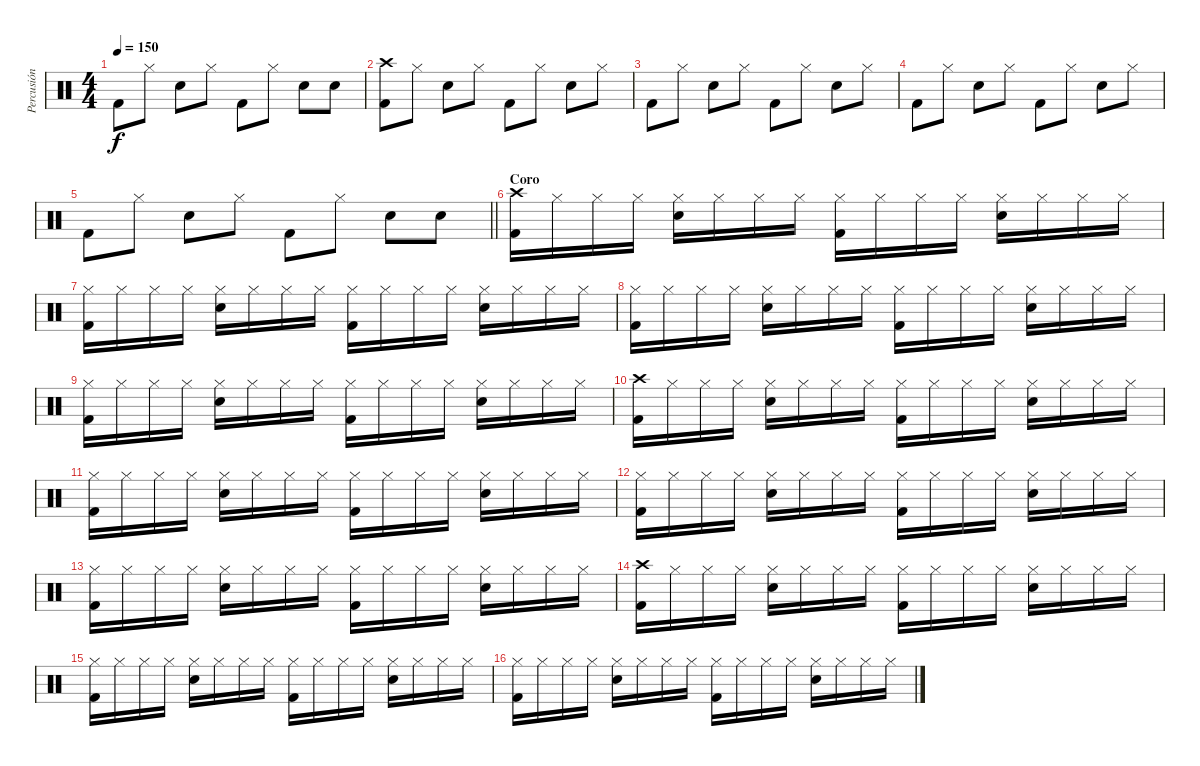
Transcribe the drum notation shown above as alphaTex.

\track ("Percusión" "Percusión") {instrument percussion}
\staff {score}
\articulation defaults
\ts (4 4)
\tempo 150
\clef neutral
\ks c "Kick (hit) 2".8{dy f} "Hi-Hat (closed)".8 "Electric Snare (hit)".8 "Hi-Hat (closed)".8 "Kick (hit) 2".8 "Hi-Hat (closed)".8 "Electric Snare (hit)".8 "Electric Snare (hit)".8
|
("Crash high (hit)" "Kick (hit) 2").8 "Hi-Hat (closed)".8 "Electric Snare (hit)".8 "Hi-Hat (closed)".8 "Kick (hit) 2".8 "Hi-Hat (closed)".8 "Electric Snare (hit)".8 "Hi-Hat (closed)".8 |
"Kick (hit) 2".8 "Hi-Hat (closed)".8 "Electric Snare (hit)".8 "Hi-Hat (closed)".8 "Kick (hit) 2".8 "Hi-Hat (closed)".8 "Electric Snare (hit)".8 "Hi-Hat (closed)".8 |
"Kick (hit) 2".8 "Hi-Hat (closed)".8 "Electric Snare (hit)".8 "Hi-Hat (closed)".8 "Kick (hit) 2".8 "Hi-Hat (closed)".8 "Electric Snare (hit)".8 "Hi-Hat (closed)".8 |
\barLineRight lightlight "Kick (hit) 2".8 "Hi-Hat (closed)".8 "Electric Snare (hit)".8 "Hi-Hat (closed)".8 "Kick (hit) 2".8 "Hi-Hat (closed)".8 "Electric Snare (hit)".8 "Electric Snare (hit)".8
|
\section ("" "Coro")
("Crash high (hit)" "Kick (hit) 2").16 "Hi-Hat (closed)".16 "Hi-Hat (closed)".16 "Hi-Hat (closed)".16 ("Hi-Hat (closed)" "Electric Snare (hit)").16 "Hi-Hat (closed)".16 "Hi-Hat (closed)".16 "Hi-Hat (closed)".16 ("Hi-Hat (closed)" "Kick (hit) 2").16 "Hi-Hat (closed)".16 "Hi-Hat (closed)".16 "Hi-Hat (closed)".16 ("Hi-Hat (closed)" "Electric Snare (hit)").16 "Hi-Hat (closed)".16 "Hi-Hat (closed)".16 "Hi-Hat (closed)".16 |
("Hi-Hat (closed)" "Kick (hit) 2").16 "Hi-Hat (closed)".16 "Hi-Hat (closed)".16 "Hi-Hat (closed)".16 ("Hi-Hat (closed)" "Electric Snare (hit)").16 "Hi-Hat (closed)".16 "Hi-Hat (closed)".16 "Hi-Hat (closed)".16 ("Hi-Hat (closed)" "Kick (hit) 2").16 "Hi-Hat (closed)".16 "Hi-Hat (closed)".16 "Hi-Hat (closed)".16 ("Hi-Hat (closed)" "Electric Snare (hit)").16 "Hi-Hat (closed)".16 "Hi-Hat (closed)".16 "Hi-Hat (closed)".16 |
("Hi-Hat (closed)" "Kick (hit) 2").16 "Hi-Hat (closed)".16 "Hi-Hat (closed)".16 "Hi-Hat (closed)".16 ("Hi-Hat (closed)" "Electric Snare (hit)").16 "Hi-Hat (closed)".16 "Hi-Hat (closed)".16 "Hi-Hat (closed)".16 ("Hi-Hat (closed)" "Kick (hit) 2").16 "Hi-Hat (closed)".16 "Hi-Hat (closed)".16 "Hi-Hat (closed)".16 ("Hi-Hat (closed)" "Electric Snare (hit)").16 "Hi-Hat (closed)".16 "Hi-Hat (closed)".16 "Hi-Hat (closed)".16 |
("Hi-Hat (closed)" "Kick (hit) 2").16 "Hi-Hat (closed)".16 "Hi-Hat (closed)".16 "Hi-Hat (closed)".16 ("Hi-Hat (closed)" "Electric Snare (hit)").16 "Hi-Hat (closed)".16 "Hi-Hat (closed)".16 "Hi-Hat (closed)".16 ("Hi-Hat (closed)" "Kick (hit) 2").16 "Hi-Hat (closed)".16 "Hi-Hat (closed)".16 "Hi-Hat (closed)".16 ("Hi-Hat (closed)" "Electric Snare (hit)").16 "Hi-Hat (closed)".16 "Hi-Hat (closed)".16 "Hi-Hat (closed)".16 |
("Crash high (hit)" "Kick (hit) 2").16 "Hi-Hat (closed)".16 "Hi-Hat (closed)".16 "Hi-Hat (closed)".16 ("Hi-Hat (closed)" "Electric Snare (hit)").16 "Hi-Hat (closed)".16 "Hi-Hat (closed)".16 "Hi-Hat (closed)".16 ("Hi-Hat (closed)" "Kick (hit) 2").16 "Hi-Hat (closed)".16 "Hi-Hat (closed)".16 "Hi-Hat (closed)".16 ("Hi-Hat (closed)" "Electric Snare (hit)").16 "Hi-Hat (closed)".16 "Hi-Hat (closed)".16 "Hi-Hat (closed)".16 |
("Hi-Hat (closed)" "Kick (hit) 2").16 "Hi-Hat (closed)".16 "Hi-Hat (closed)".16 "Hi-Hat (closed)".16 ("Hi-Hat (closed)" "Electric Snare (hit)").16 "Hi-Hat (closed)".16 "Hi-Hat (closed)".16 "Hi-Hat (closed)".16 ("Hi-Hat (closed)" "Kick (hit) 2").16 "Hi-Hat (closed)".16 "Hi-Hat (closed)".16 "Hi-Hat (closed)".16 ("Hi-Hat (closed)" "Electric Snare (hit)").16 "Hi-Hat (closed)".16 "Hi-Hat (closed)".16 "Hi-Hat (closed)".16 |
("Hi-Hat (closed)" "Kick (hit) 2").16 "Hi-Hat (closed)".16 "Hi-Hat (closed)".16 "Hi-Hat (closed)".16 ("Hi-Hat (closed)" "Electric Snare (hit)").16 "Hi-Hat (closed)".16 "Hi-Hat (closed)".16 "Hi-Hat (closed)".16 ("Hi-Hat (closed)" "Kick (hit) 2").16 "Hi-Hat (closed)".16 "Hi-Hat (closed)".16 "Hi-Hat (closed)".16 ("Hi-Hat (closed)" "Electric Snare (hit)").16 "Hi-Hat (closed)".16 "Hi-Hat (closed)".16 "Hi-Hat (closed)".16 |
("Hi-Hat (closed)" "Kick (hit) 2").16 "Hi-Hat (closed)".16 "Hi-Hat (closed)".16 "Hi-Hat (closed)".16 ("Hi-Hat (closed)" "Electric Snare (hit)").16 "Hi-Hat (closed)".16 "Hi-Hat (closed)".16 "Hi-Hat (closed)".16 ("Hi-Hat (closed)" "Kick (hit) 2").16 "Hi-Hat (closed)".16 "Hi-Hat (closed)".16 "Hi-Hat (closed)".16 ("Hi-Hat (closed)" "Electric Snare (hit)").16 "Hi-Hat (closed)".16 "Hi-Hat (closed)".16 "Hi-Hat (closed)".16 |
("Crash high (hit)" "Kick (hit) 2").16 "Hi-Hat (closed)".16 "Hi-Hat (closed)".16 "Hi-Hat (closed)".16 ("Hi-Hat (closed)" "Electric Snare (hit)").16 "Hi-Hat (closed)".16 "Hi-Hat (closed)".16 "Hi-Hat (closed)".16 ("Hi-Hat (closed)" "Kick (hit) 2").16 "Hi-Hat (closed)".16 "Hi-Hat (closed)".16 "Hi-Hat (closed)".16 ("Hi-Hat (closed)" "Electric Snare (hit)").16 "Hi-Hat (closed)".16 "Hi-Hat (closed)".16 "Hi-Hat (closed)".16 |
("Hi-Hat (closed)" "Kick (hit) 2").16 "Hi-Hat (closed)".16 "Hi-Hat (closed)".16 "Hi-Hat (closed)".16 ("Hi-Hat (closed)" "Electric Snare (hit)").16 "Hi-Hat (closed)".16 "Hi-Hat (closed)".16 "Hi-Hat (closed)".16 ("Hi-Hat (closed)" "Kick (hit) 2").16 "Hi-Hat (closed)".16 "Hi-Hat (closed)".16 "Hi-Hat (closed)".16 ("Hi-Hat (closed)" "Electric Snare (hit)").16 "Hi-Hat (closed)".16 "Hi-Hat (closed)".16 "Hi-Hat (closed)".16 |
("Hi-Hat (closed)" "Kick (hit) 2").16 "Hi-Hat (closed)".16 "Hi-Hat (closed)".16 "Hi-Hat (closed)".16 ("Hi-Hat (closed)" "Electric Snare (hit)").16 "Hi-Hat (closed)".16 "Hi-Hat (closed)".16 "Hi-Hat (closed)".16 ("Hi-Hat (closed)" "Kick (hit) 2").16 "Hi-Hat (closed)".16 "Hi-Hat (closed)".16 "Hi-Hat (closed)".16 ("Hi-Hat (closed)" "Electric Snare (hit)").16 "Hi-Hat (closed)".16 "Hi-Hat (closed)".16 "Hi-Hat (closed)".16
